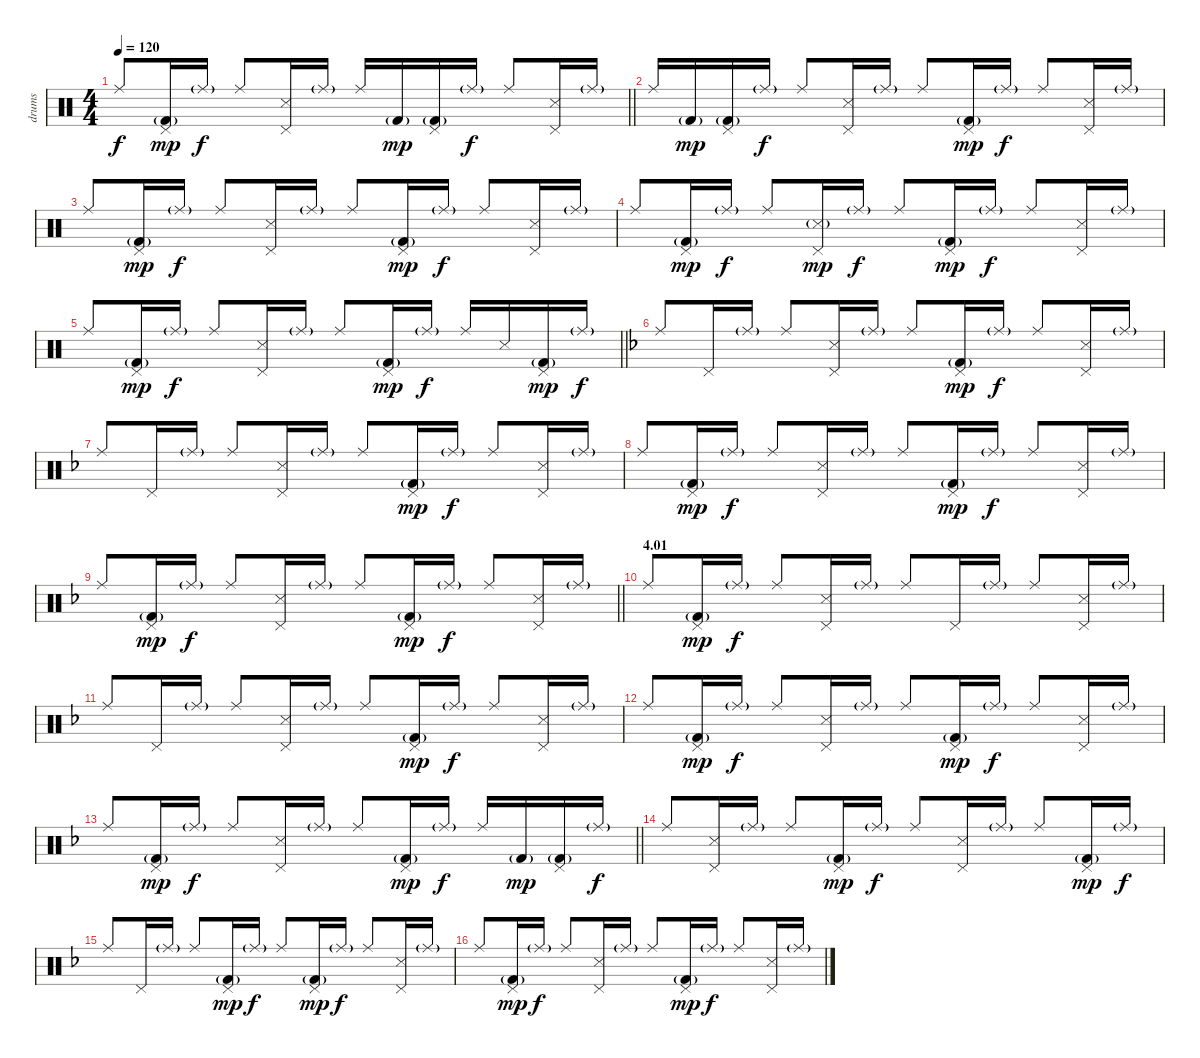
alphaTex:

\track ("drums" "drums") {instrument percussion}
\staff {score}
\articulation defaults
\ts (4 4)
\tempo 120
\clef neutral
\barLineRight lightlight
\ks c "Ride (middle)".8{dy f}
("Pedal Hi-Hat (hit)" "Kick (hit) 2"{g}).16{dy mp} "Ride (middle)"{g}.16{dy f} "Ride (middle)".8 ("Pedal Hi-Hat (hit)" "Snare (side stick) 3").16 "Ride (middle)"{g}.16 "Ride (middle)".16 "Kick (hit) 2"{g}.16{dy mp} ("Pedal Hi-Hat (hit)" "Kick (hit) 2"{g}).16 "Ride (middle)"{g}.16{dy f} "Ride (middle)".8 ("Pedal Hi-Hat (hit)" "Snare (side stick) 3").16 "Ride (middle)"{g}.16 |
"Ride (middle)".16 "Kick (hit) 2"{g}.16{dy mp} ("Pedal Hi-Hat (hit)" "Kick (hit) 2"{g}).16 "Ride (middle)"{g}.16{dy f} "Ride (middle)".8 ("Pedal Hi-Hat (hit)" "Snare (side stick) 3").16 "Ride (middle)"{g}.16 "Ride (middle)".8 ("Pedal Hi-Hat (hit)" "Kick (hit) 2"{g}).16{dy mp} "Ride (middle)"{g}.16{dy f} "Ride (middle)".8 ("Pedal Hi-Hat (hit)" "Snare (side stick) 3").16 "Ride (middle)"{g}.16 |
"Ride (middle)".8 ("Pedal Hi-Hat (hit)" "Kick (hit) 2"{g}).16{dy mp} "Ride (middle)"{g}.16{dy f} "Ride (middle)".8 ("Pedal Hi-Hat (hit)" "Snare (side stick) 3").16 "Ride (middle)"{g}.16 "Ride (middle)".8 ("Pedal Hi-Hat (hit)" "Kick (hit) 2"{g}).16{dy mp} "Ride (middle)"{g}.16{dy f} "Ride (middle)".8 ("Pedal Hi-Hat (hit)" "Snare (side stick) 3").16 "Ride (middle)"{g}.16 |
"Ride (middle)".8 ("Pedal Hi-Hat (hit)" "Kick (hit) 2"{g}).16{dy mp} "Ride (middle)"{g}.16{dy f} "Ride (middle)".8 ("Pedal Hi-Hat (hit)" "Snare (side stick) 3"{g}).16{dy mp} "Ride (middle)"{g}.16{dy f} "Ride (middle)".8 ("Pedal Hi-Hat (hit)" "Kick (hit) 2"{g}).16{dy mp} "Ride (middle)"{g}.16{dy f} "Ride (middle)".8 ("Pedal Hi-Hat (hit)" "Snare (side stick) 3").16 "Ride (middle)"{g}.16 |
\barLineRight lightlight "Ride (middle)".8
("Pedal Hi-Hat (hit)" "Kick (hit) 2"{g}).16{dy mp} "Ride (middle)"{g}.16{dy f} "Ride (middle)".8 ("Pedal Hi-Hat (hit)" "Snare (side stick) 3").16 "Ride (middle)"{g}.16 "Ride (middle)".8 ("Pedal Hi-Hat (hit)" "Kick (hit) 2"{g}).16{dy mp} "Ride (middle)"{g}.16{dy f} "Ride (middle)".16 "Snare (side stick) 3".16 ("Pedal Hi-Hat (hit)" "Kick (hit) 2"{g}).16{dy mp} "Ride (middle)"{g}.16{dy f} |
\ks f "Ride (middle)".8 "Pedal Hi-Hat (hit)".16 "Ride (middle)"{g}.16 "Ride (middle)".8
("Pedal Hi-Hat (hit)" "Snare (side stick) 3").16 "Ride (middle)"{g}.16 "Ride (middle)".8 ("Pedal Hi-Hat (hit)" "Kick (hit) 2"{g}).16{dy mp} "Ride (middle)"{g}.16{dy f} "Ride (middle)".8 ("Pedal Hi-Hat (hit)" "Snare (side stick) 3").16 "Ride (middle)"{g}.16 |
"Ride (middle)".8 "Pedal Hi-Hat (hit)".16 "Ride (middle)"{g}.16 "Ride (middle)".8 ("Pedal Hi-Hat (hit)" "Snare (side stick) 3").16 "Ride (middle)"{g}.16 "Ride (middle)".8 ("Pedal Hi-Hat (hit)" "Kick (hit) 2"{g}).16{dy mp} "Ride (middle)"{g}.16{dy f} "Ride (middle)".8 ("Pedal Hi-Hat (hit)" "Snare (side stick) 3").16 "Ride (middle)"{g}.16 |
"Ride (middle)".8 ("Pedal Hi-Hat (hit)" "Kick (hit) 2"{g}).16{dy mp} "Ride (middle)"{g}.16{dy f} "Ride (middle)".8 ("Pedal Hi-Hat (hit)" "Snare (side stick) 3").16 "Ride (middle)"{g}.16 "Ride (middle)".8 ("Pedal Hi-Hat (hit)" "Kick (hit) 2"{g}).16{dy mp} "Ride (middle)"{g}.16{dy f} "Ride (middle)".8 ("Pedal Hi-Hat (hit)" "Snare (side stick) 3").16 "Ride (middle)"{g}.16 |
\barLineRight lightlight "Ride (middle)".8
("Pedal Hi-Hat (hit)" "Kick (hit) 2"{g}).16{dy mp} "Ride (middle)"{g}.16{dy f} "Ride (middle)".8 ("Pedal Hi-Hat (hit)" "Snare (side stick) 3").16 "Ride (middle)"{g}.16 "Ride (middle)".8 ("Pedal Hi-Hat (hit)" "Kick (hit) 2"{g}).16{dy mp} "Ride (middle)"{g}.16{dy f} "Ride (middle)".8 ("Pedal Hi-Hat (hit)" "Snare (side stick) 3").16 "Ride (middle)"{g}.16 |
\section ("" "4.01")
"Ride (middle)".8 ("Pedal Hi-Hat (hit)" "Kick (hit) 2"{g}).16{dy mp} "Ride (middle)"{g}.16{dy f} "Ride (middle)".8 ("Pedal Hi-Hat (hit)" "Snare (side stick) 3").16 "Ride (middle)"{g}.16 "Ride (middle)".8 "Pedal Hi-Hat (hit)".16 "Ride (middle)"{g}.16 "Ride (middle)".8 ("Pedal Hi-Hat (hit)" "Snare (side stick) 3").16 "Ride (middle)"{g}.16 |
"Ride (middle)".8 "Pedal Hi-Hat (hit)".16 "Ride (middle)"{g}.16 "Ride (middle)".8 ("Pedal Hi-Hat (hit)" "Snare (side stick) 3").16 "Ride (middle)"{g}.16 "Ride (middle)".8 ("Pedal Hi-Hat (hit)" "Kick (hit) 2"{g}).16{dy mp} "Ride (middle)"{g}.16{dy f} "Ride (middle)".8 ("Pedal Hi-Hat (hit)" "Snare (side stick) 3").16 "Ride (middle)"{g}.16 |
"Ride (middle)".8 ("Pedal Hi-Hat (hit)" "Kick (hit) 2"{g}).16{dy mp} "Ride (middle)"{g}.16{dy f} "Ride (middle)".8 ("Pedal Hi-Hat (hit)" "Snare (side stick) 3").16 "Ride (middle)"{g}.16 "Ride (middle)".8 ("Pedal Hi-Hat (hit)" "Kick (hit) 2"{g}).16{dy mp} "Ride (middle)"{g}.16{dy f} "Ride (middle)".8 ("Pedal Hi-Hat (hit)" "Snare (side stick) 3").16 "Ride (middle)"{g}.16 |
\barLineRight lightlight "Ride (middle)".8
("Pedal Hi-Hat (hit)" "Kick (hit) 2"{g}).16{dy mp} "Ride (middle)"{g}.16{dy f} "Ride (middle)".8 ("Pedal Hi-Hat (hit)" "Snare (side stick) 3").16 "Ride (middle)"{g}.16 "Ride (middle)".8 ("Pedal Hi-Hat (hit)" "Kick (hit) 2"{g}).16{dy mp} "Ride (middle)"{g}.16{dy f} "Ride (middle)".16 "Kick (hit) 2"{g}.16{dy mp} ("Pedal Hi-Hat (hit)" "Kick (hit) 2"{g}).16 "Ride (middle)"{g}.16{dy f} |
"Ride (middle)".8 ("Pedal Hi-Hat (hit)" "Snare (side stick) 3").16 "Ride (middle)"{g}.16 "Ride (middle)".8 ("Pedal Hi-Hat (hit)" "Kick (hit) 2"{g}).16{dy mp} "Ride (middle)"{g}.16{dy f} "Ride (middle)".8 ("Pedal Hi-Hat (hit)" "Snare (side stick) 3").16 "Ride (middle)"{g}.16 "Ride (middle)".8 ("Pedal Hi-Hat (hit)" "Kick (hit) 2"{g}).16{dy mp} "Ride (middle)"{g}.16{dy f} |
"Ride (middle)".8 "Pedal Hi-Hat (hit)".16 "Ride (middle)"{g}.16 "Ride (middle)".8 ("Pedal Hi-Hat (hit)" "Kick (hit) 2"{g}).16{dy mp} "Ride (middle)"{g}.16{dy f} "Ride (middle)".8 ("Pedal Hi-Hat (hit)" "Kick (hit) 2"{g}).16{dy mp} "Ride (middle)"{g}.16{dy f} "Ride (middle)".8 ("Pedal Hi-Hat (hit)" "Snare (side stick) 3").16 "Ride (middle)"{g}.16 |
"Ride (middle)".8 ("Pedal Hi-Hat (hit)" "Kick (hit) 2"{g}).16{dy mp} "Ride (middle)"{g}.16{dy f} "Ride (middle)".8 ("Pedal Hi-Hat (hit)" "Snare (side stick) 3").16 "Ride (middle)"{g}.16 "Ride (middle)".8 ("Pedal Hi-Hat (hit)" "Kick (hit) 2"{g}).16{dy mp} "Ride (middle)"{g}.16{dy f} "Ride (middle)".8 ("Pedal Hi-Hat (hit)" "Snare (side stick) 3").16 "Ride (middle)"{g}.16
